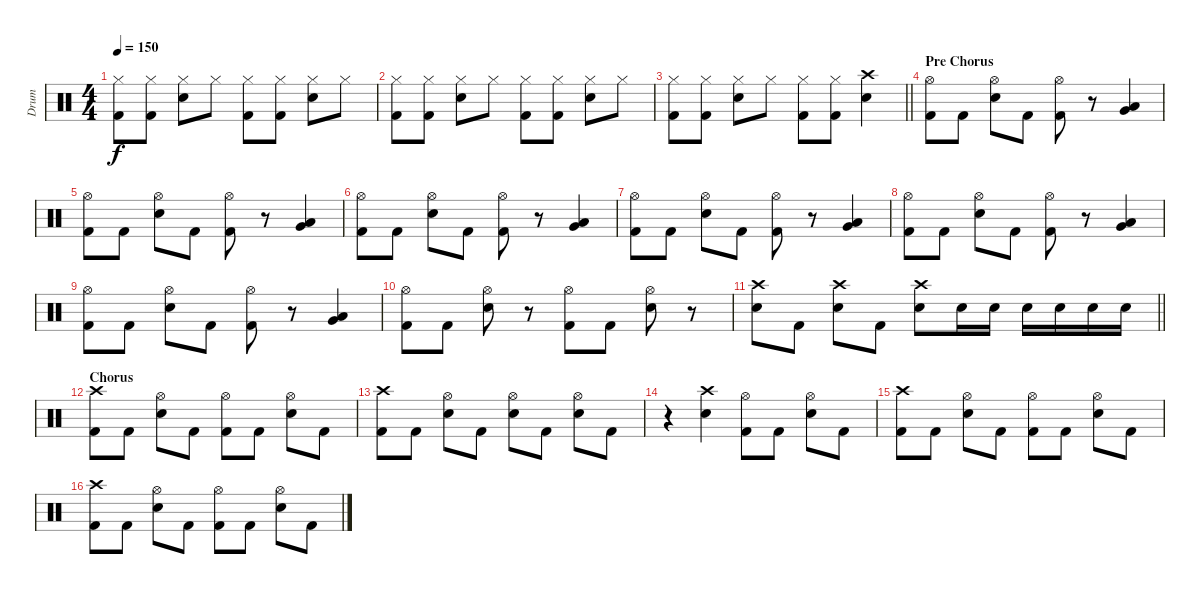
\track ("Drum" "Drum") {instrument percussion}
\staff {score}
\articulation defaults
\ts (4 4)
\tempo 150
\clef neutral
\ks c
("Kick (hit) 2" "Hi-Hat (closed)").8{dy f} ("Kick (hit) 2" "Hi-Hat (closed)").8 ("Electric Snare (hit)" "Hi-Hat (closed)").8 "Hi-Hat (closed)".8 ("Kick (hit) 2" "Hi-Hat (closed)").8 ("Kick (hit) 2" "Hi-Hat (closed)").8 ("Electric Snare (hit)" "Hi-Hat (closed)").8 "Hi-Hat (closed)".8 |
("Kick (hit) 2" "Hi-Hat (closed)").8 ("Kick (hit) 2" "Hi-Hat (closed)").8 ("Electric Snare (hit)" "Hi-Hat (closed)").8 "Hi-Hat (closed)".8 ("Kick (hit) 2" "Hi-Hat (closed)").8 ("Kick (hit) 2" "Hi-Hat (closed)").8 ("Electric Snare (hit)" "Hi-Hat (closed)").8 "Hi-Hat (closed)".8 |
\barLineRight lightlight
("Kick (hit) 2" "Hi-Hat (closed)").8 ("Kick (hit) 2" "Hi-Hat (closed)").8 ("Electric Snare (hit)" "Hi-Hat (closed)").8 "Hi-Hat (closed)".8 ("Kick (hit) 2" "Hi-Hat (closed)").8 ("Kick (hit) 2" "Hi-Hat (closed)").8 ("Electric Snare (hit)" "Crash high (hit)").4 |
\section ("" "Pre Chorus")
("Kick (hit) 2" "Hi-Hat (open)").8 "Kick (hit) 2".8 ("Electric Snare (hit)" "Hi-Hat (open)").8 "Kick (hit) 2".8 ("Kick (hit) 2" "Hi-Hat (open)").8 r.8 ("Very Low Tom (hit)" "Low Tom (hit)").4 |
("Kick (hit) 2" "Hi-Hat (open)").8 "Kick (hit) 2".8 ("Electric Snare (hit)" "Hi-Hat (open)").8 "Kick (hit) 2".8 ("Kick (hit) 2" "Hi-Hat (open)").8 r.8 ("Very Low Tom (hit)" "Low Tom (hit)").4 |
("Kick (hit) 2" "Hi-Hat (open)").8 "Kick (hit) 2".8 ("Electric Snare (hit)" "Hi-Hat (open)").8 "Kick (hit) 2".8 ("Kick (hit) 2" "Hi-Hat (open)").8 r.8 ("Very Low Tom (hit)" "Low Tom (hit)").4 |
("Kick (hit) 2" "Hi-Hat (open)").8 "Kick (hit) 2".8 ("Electric Snare (hit)" "Hi-Hat (open)").8 "Kick (hit) 2".8 ("Kick (hit) 2" "Hi-Hat (open)").8 r.8 ("Very Low Tom (hit)" "Low Tom (hit)").4 |
("Kick (hit) 2" "Hi-Hat (open)").8 "Kick (hit) 2".8 ("Electric Snare (hit)" "Hi-Hat (open)").8 "Kick (hit) 2".8 ("Kick (hit) 2" "Hi-Hat (open)").8 r.8 ("Very Low Tom (hit)" "Low Tom (hit)").4 |
("Kick (hit) 2" "Hi-Hat (open)").8 "Kick (hit) 2".8 ("Electric Snare (hit)" "Hi-Hat (open)").8 "Kick (hit) 2".8 ("Kick (hit) 2" "Hi-Hat (open)").8 r.8 ("Very Low Tom (hit)" "Low Tom (hit)").4 |
("Kick (hit) 2" "Hi-Hat (open)").8 "Kick (hit) 2".8 ("Electric Snare (hit)" "Hi-Hat (open)").8 r.8 ("Kick (hit) 2" "Hi-Hat (open)").8 "Kick (hit) 2".8 ("Electric Snare (hit)" "Hi-Hat (open)").8 r.8 |
\barLineRight lightlight
("Electric Snare (hit)" "Crash high (hit)").8 "Kick (hit) 2".8 ("Electric Snare (hit)" "Crash high (hit)").8 "Kick (hit) 2".8 ("Electric Snare (hit)" "Crash high (hit)").8 "Electric Snare (hit)".16 "Electric Snare (hit)".16 "Electric Snare (hit)".16 "Electric Snare (hit)".16 "Electric Snare (hit)".16 "Electric Snare (hit)".16 |
\section ("" "Chorus")
("Kick (hit) 2" "Crash high (hit)").8 "Kick (hit) 2".8 ("Electric Snare (hit)" "Hi-Hat (open)").8 "Kick (hit) 2".8 ("Kick (hit) 2" "Hi-Hat (open)").8 "Kick (hit) 2".8 ("Electric Snare (hit)" "Hi-Hat (open)").8 "Kick (hit) 2".8 |
("Kick (hit) 2" "Crash high (hit)").8 "Kick (hit) 2".8 ("Electric Snare (hit)" "Hi-Hat (open)").8 "Kick (hit) 2".8 ("Electric Snare (hit)" "Hi-Hat (open)").8 "Kick (hit) 2".8 ("Electric Snare (hit)" "Hi-Hat (open)").8 "Kick (hit) 2".8 |
r.4 ("Electric Snare (hit)" "Crash high (hit)").4 ("Kick (hit) 2" "Hi-Hat (open)").8 "Kick (hit) 2".8 ("Electric Snare (hit)" "Hi-Hat (open)").8 "Kick (hit) 2".8 |
("Kick (hit) 2" "Crash high (hit)").8 "Kick (hit) 2".8 ("Electric Snare (hit)" "Hi-Hat (open)").8 "Kick (hit) 2".8 ("Kick (hit) 2" "Hi-Hat (open)").8 "Kick (hit) 2".8 ("Electric Snare (hit)" "Hi-Hat (open)").8 "Kick (hit) 2".8 |
("Kick (hit) 2" "Crash high (hit)").8 "Kick (hit) 2".8 ("Electric Snare (hit)" "Hi-Hat (open)").8 "Kick (hit) 2".8 ("Kick (hit) 2" "Hi-Hat (open)").8 "Kick (hit) 2".8 ("Electric Snare (hit)" "Hi-Hat (open)").8 "Kick (hit) 2".8
